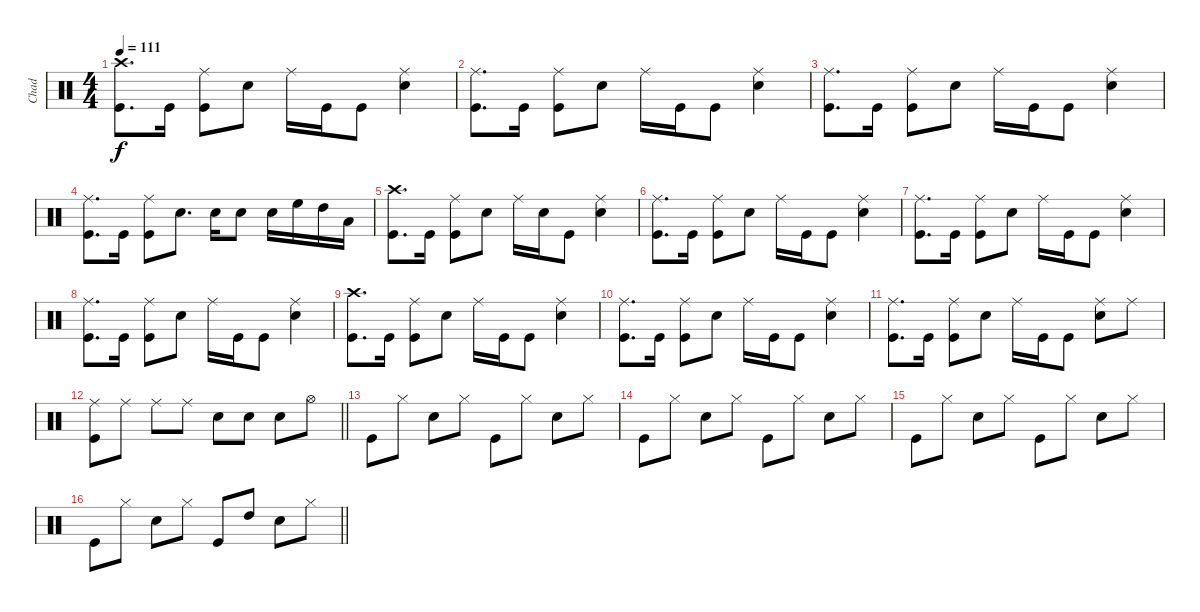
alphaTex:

\track ("Chad" "Chad") {instrument percussion}
\staff {score}
\articulation defaults
\ts (4 4)
\tempo 111
\clef neutral
\ks c
("Kick (hit)" "Crash high (hit)").8{d dy f} "Kick (hit)".16 ("Kick (hit)" "Ride (middle)").8 "Snare (hit) 2".8 "Ride (middle)".16 "Kick (hit)".16 "Kick (hit)".8 ("Snare (hit) 2" "Ride (middle)").4 |
("Kick (hit)" "Ride (middle)").8{d} "Kick (hit)".16 ("Kick (hit)" "Ride (middle)").8 "Snare (hit) 2".8 "Ride (middle)".16 "Kick (hit)".16 "Kick (hit)".8 ("Snare (hit) 2" "Ride (middle)").4 |
("Kick (hit)" "Ride (middle)").8{d} "Kick (hit)".16 ("Kick (hit)" "Ride (middle)").8 "Snare (hit) 2".8 "Ride (middle)".16 "Kick (hit)".16 "Kick (hit)".8 ("Snare (hit) 2" "Ride (middle)").4 |
("Kick (hit)" "Ride (middle)").8{d} "Kick (hit)".16 ("Kick (hit)" "Ride (middle)").8 "Snare (hit) 2".8{d} "Snare (hit) 2".16 "Snare (hit) 2".8 "Snare (hit) 2".16 "High Floor Tom (hit)".16 "High Tom (hit)".16 "Low Floor Tom (hit)".16 |
("Kick (hit)" "Crash high (hit)").8{d} "Kick (hit)".16 ("Kick (hit)" "Ride (middle)").8 "Snare (hit) 2".8 "Ride (middle)".16 "Snare (hit) 2".16 "Kick (hit)".8 ("Snare (hit) 2" "Ride (middle)").4 |
("Kick (hit)" "Ride (middle)").8{d} "Kick (hit)".16 ("Kick (hit)" "Ride (middle)").8 "Snare (hit) 2".8 "Ride (middle)".16 "Kick (hit)".16 "Kick (hit)".8 ("Snare (hit) 2" "Ride (middle)").4 |
("Kick (hit)" "Ride (middle)").8{d} "Kick (hit)".16 ("Kick (hit)" "Ride (middle)").8 "Snare (hit) 2".8 "Ride (middle)".16 "Kick (hit)".16 "Kick (hit)".8 ("Snare (hit) 2" "Ride (middle)").4 |
("Kick (hit)" "Ride (middle)").8{d} "Kick (hit)".16 ("Kick (hit)" "Ride (middle)").8 "Snare (hit) 2".8 "Ride (middle)".16 "Kick (hit)".16 "Kick (hit)".8 ("Snare (hit) 2" "Ride (middle)").4 |
("Kick (hit)" "Crash high (hit)").8{d} "Kick (hit)".16 ("Kick (hit)" "Ride (middle)").8 "Snare (hit) 2".8 "Ride (middle)".16 "Kick (hit)".16 "Kick (hit)".8 ("Snare (hit) 2" "Ride (middle)").4 |
("Kick (hit)" "Ride (middle)").8{d} "Kick (hit)".16 ("Kick (hit)" "Ride (middle)").8 "Snare (hit) 2".8 "Ride (middle)".16 "Kick (hit)".16 "Kick (hit)".8 ("Snare (hit) 2" "Ride (middle)").4 |
("Kick (hit)" "Ride (middle)").8{d} "Kick (hit)".16 ("Kick (hit)" "Ride (middle)").8 "Snare (hit) 2".8 "Ride (middle)".16 "Kick (hit)".16 "Kick (hit)".8 ("Snare (hit) 2" "Ride (middle)").8 "Ride (middle)".8 |
\barLineRight lightlight
("Kick (hit)" "Ride (middle)").8 "Ride (middle)".8 "Ride (middle)".8 "Ride (middle)".8 "Snare (hit) 2".8 "Snare (hit) 2".8 "Snare (hit) 2".8 "Hi-Hat (open)".8 |
"Kick (hit)".8 "Hi-Hat (closed)".8 "Snare (hit) 2".8 "Hi-Hat (closed)".8 "Kick (hit)".8 "Hi-Hat (closed)".8 "Snare (hit) 2".8 "Hi-Hat (closed)".8 |
"Kick (hit)".8 "Hi-Hat (closed)".8 "Snare (hit) 2".8 "Hi-Hat (closed)".8 "Kick (hit)".8 "Hi-Hat (closed)".8 "Snare (hit) 2".8 "Hi-Hat (closed)".8 |
"Kick (hit)".8 "Hi-Hat (closed)".8 "Snare (hit) 2".8 "Hi-Hat (closed)".8 "Kick (hit)".8 "Hi-Hat (closed)".8 "Snare (hit) 2".8 "Hi-Hat (closed)".8 |
\barLineRight lightlight "Kick (hit)".8 "Hi-Hat (closed)".8 "Snare (hit) 2".8 "Hi-Hat (closed)".8 "Kick (hit)".8 "High Tom (hit)".8 "Snare (hit) 2".8 "Hi-Hat (closed)".8
